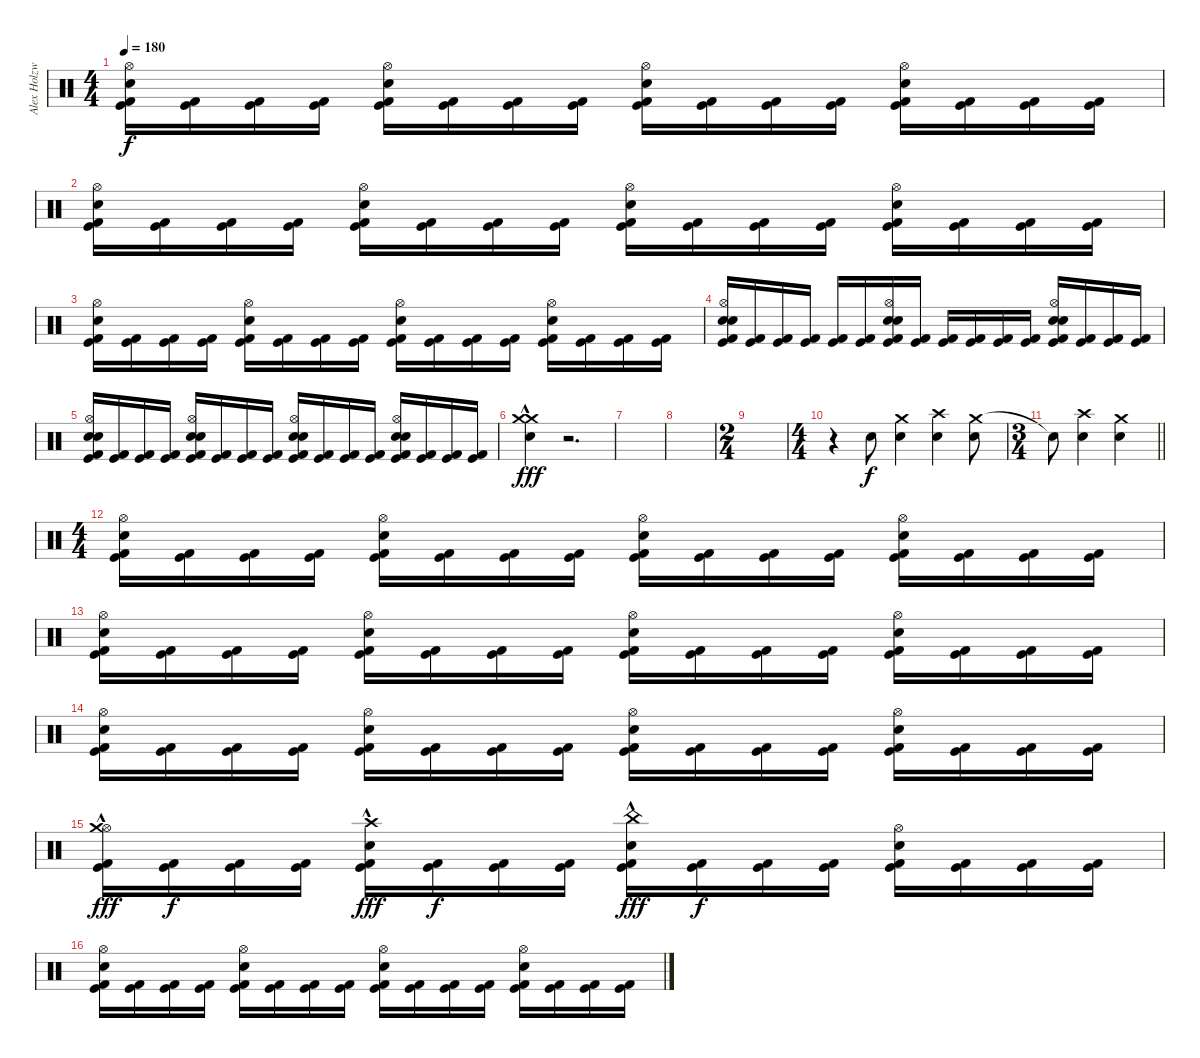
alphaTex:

\track ("Alex Holzwarth" "Alex Holzw") {instrument percussion}
\staff {score}
\articulation defaults
\ts (4 4)
\tempo 180
\clef neutral
\ks c
("Kick (hit) 2" "Kick (hit)" "Snare (hit) 2" "Hi-Hat (open)").16{dy f} ("Kick (hit) 2" "Kick (hit)").16 ("Kick (hit) 2" "Kick (hit)").16 ("Kick (hit) 2" "Kick (hit)").16 ("Kick (hit) 2" "Kick (hit)" "Hi-Hat (open)" "Snare (hit) 2").16 ("Kick (hit) 2" "Kick (hit)").16 ("Kick (hit) 2" "Kick (hit)").16 ("Kick (hit) 2" "Kick (hit)").16 ("Kick (hit) 2" "Kick (hit)" "Hi-Hat (open)" "Snare (hit) 2").16 ("Kick (hit) 2" "Kick (hit)").16 ("Kick (hit) 2" "Kick (hit)").16 ("Kick (hit) 2" "Kick (hit)").16 ("Kick (hit) 2" "Kick (hit)" "Hi-Hat (open)" "Snare (hit) 2").16 ("Kick (hit) 2" "Kick (hit)").16 ("Kick (hit) 2" "Kick (hit)").16 ("Kick (hit) 2" "Kick (hit)").16 |
("Kick (hit) 2" "Kick (hit)" "Snare (hit) 2" "Hi-Hat (open)").16 ("Kick (hit) 2" "Kick (hit)").16 ("Kick (hit) 2" "Kick (hit)").16 ("Kick (hit) 2" "Kick (hit)").16 ("Kick (hit) 2" "Kick (hit)" "Hi-Hat (open)" "Snare (hit) 2").16 ("Kick (hit) 2" "Kick (hit)").16 ("Kick (hit) 2" "Kick (hit)").16 ("Kick (hit) 2" "Kick (hit)").16 ("Kick (hit) 2" "Kick (hit)" "Hi-Hat (open)" "Snare (hit) 2").16 ("Kick (hit) 2" "Kick (hit)").16 ("Kick (hit) 2" "Kick (hit)").16 ("Kick (hit) 2" "Kick (hit)").16 ("Kick (hit) 2" "Kick (hit)" "Hi-Hat (open)" "Snare (hit) 2").16 ("Kick (hit) 2" "Kick (hit)").16 ("Kick (hit) 2" "Kick (hit)").16 ("Kick (hit) 2" "Kick (hit)").16 |
("Kick (hit) 2" "Kick (hit)" "Snare (hit) 2" "Hi-Hat (open)").16 ("Kick (hit) 2" "Kick (hit)").16 ("Kick (hit) 2" "Kick (hit)").16 ("Kick (hit) 2" "Kick (hit)").16 ("Kick (hit) 2" "Kick (hit)" "Hi-Hat (open)" "Snare (hit) 2").16 ("Kick (hit) 2" "Kick (hit)").16 ("Kick (hit) 2" "Kick (hit)").16 ("Kick (hit) 2" "Kick (hit)").16 ("Kick (hit) 2" "Kick (hit)" "Hi-Hat (open)" "Snare (hit) 2").16 ("Kick (hit) 2" "Kick (hit)").16 ("Kick (hit) 2" "Kick (hit)").16 ("Kick (hit) 2" "Kick (hit)").16 ("Kick (hit) 2" "Kick (hit)" "Hi-Hat (open)" "Snare (hit) 2").16 ("Kick (hit) 2" "Kick (hit)").16 ("Kick (hit) 2" "Kick (hit)").16 ("Kick (hit) 2" "Kick (hit)").16 |
("Kick (hit) 2" "Kick (hit)" "Snare (hit) 2" "Electric Snare (hit)" "Hi-Hat (open)").16 ("Kick (hit) 2" "Kick (hit)").16 ("Kick (hit) 2" "Kick (hit)").16 ("Kick (hit) 2" "Kick (hit)").16 ("Kick (hit) 2" "Kick (hit)").16 ("Kick (hit) 2" "Kick (hit)").16 ("Kick (hit) 2" "Kick (hit)" "Snare (hit) 2" "Electric Snare (hit)" "Hi-Hat (open)").16 ("Kick (hit) 2" "Kick (hit)").16 ("Kick (hit) 2" "Kick (hit)").16 ("Kick (hit) 2" "Kick (hit)").16 ("Kick (hit) 2" "Kick (hit)").16 ("Kick (hit) 2" "Kick (hit)").16 ("Kick (hit) 2" "Kick (hit)" "Snare (hit) 2" "Electric Snare (hit)" "Hi-Hat (open)").16 ("Kick (hit) 2" "Kick (hit)").16 ("Kick (hit) 2" "Kick (hit)").16 ("Kick (hit) 2" "Kick (hit)").16 |
("Kick (hit) 2" "Kick (hit)" "Snare (hit) 2" "Electric Snare (hit)" "Hi-Hat (open)").16 ("Kick (hit) 2" "Kick (hit)").16 ("Kick (hit) 2" "Kick (hit)").16 ("Kick (hit) 2" "Kick (hit)").16 ("Kick (hit) 2" "Kick (hit)" "Snare (hit) 2" "Electric Snare (hit)" "Hi-Hat (open)").16 ("Kick (hit) 2" "Kick (hit)").16 ("Kick (hit) 2" "Kick (hit)").16 ("Kick (hit) 2" "Kick (hit)").16 ("Kick (hit) 2" "Kick (hit)" "Hi-Hat (open)" "Snare (hit) 2" "Electric Snare (hit)").16 ("Kick (hit) 2" "Kick (hit)").16 ("Kick (hit) 2" "Kick (hit)").16 ("Kick (hit) 2" "Kick (hit)").16 ("Kick (hit) 2" "Kick (hit)" "Snare (hit) 2" "Electric Snare (hit)" "Hi-Hat (open)").16 ("Kick (hit) 2" "Kick (hit)").16 ("Kick (hit) 2" "Kick (hit)").16 ("Kick (hit) 2" "Kick (hit)").16 |
("Crash medium (hit)"{hac} "Snare (hit) 2" "Crash medium (hit)"{hac}).4{dy fff volume 13} r.2{d volume 0} |
|
|
\ts (2 4)
|
\ts (4 4)
r.4 "Snare (hit) 2".8{dy f} ("Crash medium (hit)" "Snare (hit) 2").4 ("Crash high (hit)" "Snare (hit) 2").4 ("Crash medium (hit)" "Snare (hit) 2").8 |
\ts (3 4)
\barLineRight lightlight "Snare (hit)"{t}.8
("Crash high (hit)" "Snare (hit) 2").4 ("Crash medium (hit)" "Snare (hit) 2").4 |
\ts (4 4)
("Kick (hit) 2" "Kick (hit)" "Snare (hit) 2" "Hi-Hat (open)").16 ("Kick (hit) 2" "Kick (hit)").16 ("Kick (hit) 2" "Kick (hit)").16 ("Kick (hit) 2" "Kick (hit)").16 ("Kick (hit) 2" "Kick (hit)" "Hi-Hat (open)" "Snare (hit) 2").16 ("Kick (hit) 2" "Kick (hit)").16 ("Kick (hit) 2" "Kick (hit)").16 ("Kick (hit) 2" "Kick (hit)").16 ("Kick (hit) 2" "Kick (hit)" "Hi-Hat (open)" "Snare (hit) 2").16 ("Kick (hit) 2" "Kick (hit)").16 ("Kick (hit) 2" "Kick (hit)").16 ("Kick (hit) 2" "Kick (hit)").16 ("Kick (hit) 2" "Kick (hit)" "Hi-Hat (open)" "Snare (hit) 2").16 ("Kick (hit) 2" "Kick (hit)").16 ("Kick (hit) 2" "Kick (hit)").16 ("Kick (hit) 2" "Kick (hit)").16 |
("Kick (hit) 2" "Kick (hit)" "Snare (hit) 2" "Hi-Hat (open)").16 ("Kick (hit) 2" "Kick (hit)").16 ("Kick (hit) 2" "Kick (hit)").16 ("Kick (hit) 2" "Kick (hit)").16 ("Kick (hit) 2" "Kick (hit)" "Hi-Hat (open)" "Snare (hit) 2").16 ("Kick (hit) 2" "Kick (hit)").16 ("Kick (hit) 2" "Kick (hit)").16 ("Kick (hit) 2" "Kick (hit)").16 ("Kick (hit) 2" "Kick (hit)" "Hi-Hat (open)" "Snare (hit) 2").16 ("Kick (hit) 2" "Kick (hit)").16 ("Kick (hit) 2" "Kick (hit)").16 ("Kick (hit) 2" "Kick (hit)").16 ("Kick (hit) 2" "Kick (hit)" "Hi-Hat (open)" "Snare (hit) 2").16 ("Kick (hit) 2" "Kick (hit)").16 ("Kick (hit) 2" "Kick (hit)").16 ("Kick (hit) 2" "Kick (hit)").16 |
("Kick (hit) 2" "Kick (hit)" "Snare (hit) 2" "Hi-Hat (open)").16 ("Kick (hit) 2" "Kick (hit)").16 ("Kick (hit) 2" "Kick (hit)").16 ("Kick (hit) 2" "Kick (hit)").16 ("Kick (hit) 2" "Kick (hit)" "Hi-Hat (open)" "Snare (hit) 2").16 ("Kick (hit) 2" "Kick (hit)").16 ("Kick (hit) 2" "Kick (hit)").16 ("Kick (hit) 2" "Kick (hit)").16 ("Kick (hit) 2" "Kick (hit)" "Hi-Hat (open)" "Snare (hit) 2").16 ("Kick (hit) 2" "Kick (hit)").16 ("Kick (hit) 2" "Kick (hit)").16 ("Kick (hit) 2" "Kick (hit)").16 ("Kick (hit) 2" "Kick (hit)" "Hi-Hat (open)" "Snare (hit) 2").16 ("Kick (hit) 2" "Kick (hit)").16 ("Kick (hit) 2" "Kick (hit)").16 ("Kick (hit) 2" "Kick (hit)").16 |
("Kick (hit) 2" "Kick (hit)" "Hi-Hat (open)" "Crash medium (hit)"{hac}).16{dy fff} ("Kick (hit) 2" "Kick (hit)").16{dy f} ("Kick (hit) 2" "Kick (hit)").16 ("Kick (hit) 2" "Kick (hit)").16 ("Kick (hit) 2" "Kick (hit)" "Snare (hit) 2" "Crash high (hit)"{hac}).16{dy fff} ("Kick (hit) 2" "Kick (hit)").16{dy f} ("Kick (hit) 2" "Kick (hit)").16 ("Kick (hit) 2" "Kick (hit)").16 ("Kick (hit) 2" "Kick (hit)" "Snare (hit) 2" "China (hit)"{hac}).16{dy fff} ("Kick (hit) 2" "Kick (hit)").16{dy f} ("Kick (hit) 2" "Kick (hit)").16 ("Kick (hit) 2" "Kick (hit)").16 ("Kick (hit) 2" "Kick (hit)" "Hi-Hat (open)" "Snare (hit) 2").16 ("Kick (hit) 2" "Kick (hit)").16 ("Kick (hit) 2" "Kick (hit)").16 ("Kick (hit) 2" "Kick (hit)").16 |
("Kick (hit) 2" "Kick (hit)" "Snare (hit) 2" "Hi-Hat (open)").16 ("Kick (hit) 2" "Kick (hit)").16 ("Kick (hit) 2" "Kick (hit)").16 ("Kick (hit) 2" "Kick (hit)").16 ("Kick (hit) 2" "Kick (hit)" "Hi-Hat (open)" "Snare (hit) 2").16 ("Kick (hit) 2" "Kick (hit)").16 ("Kick (hit) 2" "Kick (hit)").16 ("Kick (hit) 2" "Kick (hit)").16 ("Kick (hit) 2" "Kick (hit)" "Hi-Hat (open)" "Snare (hit) 2").16 ("Kick (hit) 2" "Kick (hit)").16 ("Kick (hit) 2" "Kick (hit)").16 ("Kick (hit) 2" "Kick (hit)").16 ("Kick (hit) 2" "Kick (hit)" "Hi-Hat (open)" "Snare (hit) 2").16 ("Kick (hit) 2" "Kick (hit)").16 ("Kick (hit) 2" "Kick (hit)").16 ("Kick (hit) 2" "Kick (hit)").16
